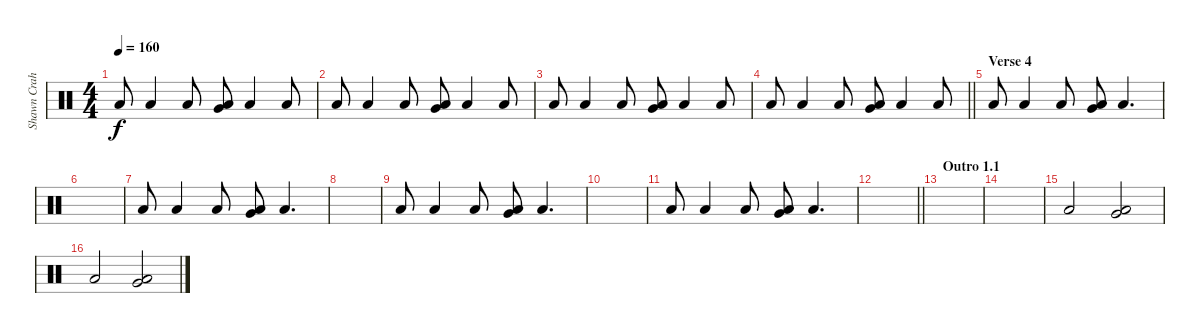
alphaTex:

\track ("Shawn Crahan" "Shawn Crah") {instrument percussion}
\staff {score}
\articulation defaults
\ts (4 4)
\tempo 160
\clef neutral
\ks c "Low Floor Tom (hit)".8{dy f} "Low Floor Tom (hit)".4 "Low Floor Tom (hit)".8
("Very Low Tom (hit)" "Low Floor Tom (hit)").8 "Low Floor Tom (hit)".4 "Low Floor Tom (hit)".8 |
"Low Floor Tom (hit)".8 "Low Floor Tom (hit)".4 "Low Floor Tom (hit)".8 ("Very Low Tom (hit)" "Low Floor Tom (hit)").8 "Low Floor Tom (hit)".4 "Low Floor Tom (hit)".8 |
"Low Floor Tom (hit)".8 "Low Floor Tom (hit)".4 "Low Floor Tom (hit)".8 ("Very Low Tom (hit)" "Low Floor Tom (hit)").8 "Low Floor Tom (hit)".4 "Low Floor Tom (hit)".8 |
\barLineRight lightlight "Low Floor Tom (hit)".8 "Low Floor Tom (hit)".4 "Low Floor Tom (hit)".8
("Very Low Tom (hit)" "Low Floor Tom (hit)").8 "Low Floor Tom (hit)".4 "Low Floor Tom (hit)".8 |
\section ("" "Verse 4")
"Low Floor Tom (hit)".8 "Low Floor Tom (hit)".4 "Low Floor Tom (hit)".8 ("Very Low Tom (hit)" "Low Floor Tom (hit)").8 "Low Floor Tom (hit)".4{d} |
|
"Low Floor Tom (hit)".8 "Low Floor Tom (hit)".4 "Low Floor Tom (hit)".8 ("Very Low Tom (hit)" "Low Floor Tom (hit)").8 "Low Floor Tom (hit)".4{d} |
|
"Low Floor Tom (hit)".8 "Low Floor Tom (hit)".4 "Low Floor Tom (hit)".8 ("Very Low Tom (hit)" "Low Floor Tom (hit)").8 "Low Floor Tom (hit)".4{d} |
|
"Low Floor Tom (hit)".8 "Low Floor Tom (hit)".4 "Low Floor Tom (hit)".8 ("Very Low Tom (hit)" "Low Floor Tom (hit)").8 "Low Floor Tom (hit)".4{d} |
\barLineRight lightlight
|
\section ("" "Outro 1.1")
|
|
"Low Floor Tom (hit)".2 ("Very Low Tom (hit)" "Low Floor Tom (hit)").2 |
"Low Floor Tom (hit)".2 ("Very Low Tom (hit)" "Low Floor Tom (hit)").2
